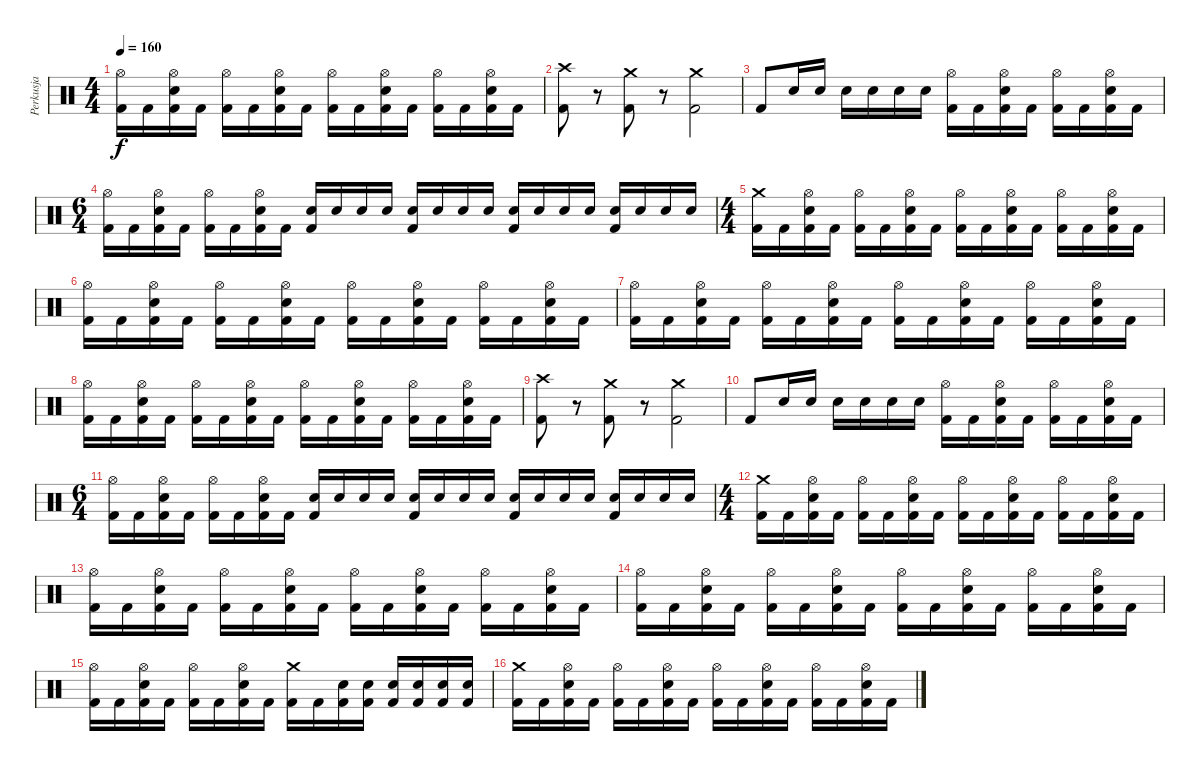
\track ("Perkusja" "Perkusja") {instrument percussion}
\staff {score}
\articulation defaults
\ts (4 4)
\tempo 160
\clef neutral
\ks c
("Hi-Hat (open)" "Kick (hit) 2").16{dy f} "Kick (hit) 2".16 ("Hi-Hat (open)" "Snare (hit) 2" "Kick (hit) 2").16 "Kick (hit) 2".16 ("Hi-Hat (open)" "Kick (hit) 2").16 "Kick (hit) 2".16 ("Hi-Hat (open)" "Snare (hit) 2" "Kick (hit) 2").16 "Kick (hit) 2".16 ("Hi-Hat (open)" "Kick (hit) 2").16 "Kick (hit) 2".16 ("Hi-Hat (open)" "Snare (hit) 2" "Kick (hit) 2").16 "Kick (hit) 2".16 ("Hi-Hat (open)" "Kick (hit) 2").16 "Kick (hit) 2".16 ("Hi-Hat (open)" "Snare (hit) 2" "Kick (hit) 2").16 "Kick (hit) 2".16 |
("Crash high (hit)" "Kick (hit) 2").8 r.8 ("Crash medium (hit)" "Kick (hit) 2").8 r.8 ("Crash medium (hit)" "Kick (hit) 2").2 |
"Kick (hit) 2".8 "Snare (hit) 2".16 "Snare (hit) 2".16 "Snare (hit) 2".16 "Snare (hit) 2".16 "Snare (hit) 2".16 "Snare (hit) 2".16 ("Hi-Hat (open)" "Kick (hit) 2").16 "Kick (hit) 2".16 ("Hi-Hat (open)" "Snare (hit) 2" "Kick (hit) 2").16 "Kick (hit) 2".16 ("Hi-Hat (open)" "Kick (hit) 2").16 "Kick (hit) 2".16 ("Hi-Hat (open)" "Snare (hit) 2" "Kick (hit) 2").16 "Kick (hit) 2".16 |
\ts (6 4)
("Hi-Hat (open)" "Kick (hit) 2").16 "Kick (hit) 2".16 ("Hi-Hat (open)" "Snare (hit) 2" "Kick (hit) 2").16 "Kick (hit) 2".16 ("Hi-Hat (open)" "Kick (hit) 2").16 "Kick (hit) 2".16 ("Hi-Hat (open)" "Snare (hit) 2" "Kick (hit) 2").16 "Kick (hit) 2".16 ("Snare (hit) 2" "Kick (hit) 2").16 "Snare (hit) 2".16 "Snare (hit) 2".16 "Snare (hit) 2".16 ("Snare (hit) 2" "Kick (hit) 2").16 "Snare (hit) 2".16 "Snare (hit) 2".16 "Snare (hit) 2".16 ("Snare (hit) 2" "Kick (hit) 2").16 "Snare (hit) 2".16 "Snare (hit) 2".16 "Snare (hit) 2".16 ("Snare (hit) 2" "Kick (hit) 2").16 "Snare (hit) 2".16 "Snare (hit) 2".16 "Snare (hit) 2".16 |
\ts (4 4)
("Crash medium (hit)" "Kick (hit) 2").16 "Kick (hit) 2".16 ("Hi-Hat (open)" "Snare (hit) 2" "Kick (hit) 2").16 "Kick (hit) 2".16 ("Hi-Hat (open)" "Kick (hit) 2").16 "Kick (hit) 2".16 ("Hi-Hat (open)" "Snare (hit) 2" "Kick (hit) 2").16 "Kick (hit) 2".16 ("Hi-Hat (open)" "Kick (hit) 2").16 "Kick (hit) 2".16 ("Hi-Hat (open)" "Snare (hit) 2" "Kick (hit) 2").16 "Kick (hit) 2".16 ("Hi-Hat (open)" "Kick (hit) 2").16 "Kick (hit) 2".16 ("Hi-Hat (open)" "Snare (hit) 2" "Kick (hit) 2").16 "Kick (hit) 2".16 |
("Hi-Hat (open)" "Kick (hit) 2").16 "Kick (hit) 2".16 ("Hi-Hat (open)" "Snare (hit) 2" "Kick (hit) 2").16 "Kick (hit) 2".16 ("Hi-Hat (open)" "Kick (hit) 2").16 "Kick (hit) 2".16 ("Hi-Hat (open)" "Snare (hit) 2" "Kick (hit) 2").16 "Kick (hit) 2".16 ("Hi-Hat (open)" "Kick (hit) 2").16 "Kick (hit) 2".16 ("Hi-Hat (open)" "Snare (hit) 2" "Kick (hit) 2").16 "Kick (hit) 2".16 ("Hi-Hat (open)" "Kick (hit) 2").16 "Kick (hit) 2".16 ("Hi-Hat (open)" "Snare (hit) 2" "Kick (hit) 2").16 "Kick (hit) 2".16 |
("Hi-Hat (open)" "Kick (hit) 2").16 "Kick (hit) 2".16 ("Hi-Hat (open)" "Snare (hit) 2" "Kick (hit) 2").16 "Kick (hit) 2".16 ("Hi-Hat (open)" "Kick (hit) 2").16 "Kick (hit) 2".16 ("Hi-Hat (open)" "Snare (hit) 2" "Kick (hit) 2").16 "Kick (hit) 2".16 ("Hi-Hat (open)" "Kick (hit) 2").16 "Kick (hit) 2".16 ("Hi-Hat (open)" "Snare (hit) 2" "Kick (hit) 2").16 "Kick (hit) 2".16 ("Hi-Hat (open)" "Kick (hit) 2").16 "Kick (hit) 2".16 ("Hi-Hat (open)" "Snare (hit) 2" "Kick (hit) 2").16 "Kick (hit) 2".16 |
("Hi-Hat (open)" "Kick (hit) 2").16 "Kick (hit) 2".16 ("Hi-Hat (open)" "Snare (hit) 2" "Kick (hit) 2").16 "Kick (hit) 2".16 ("Hi-Hat (open)" "Kick (hit) 2").16 "Kick (hit) 2".16 ("Hi-Hat (open)" "Snare (hit) 2" "Kick (hit) 2").16 "Kick (hit) 2".16 ("Hi-Hat (open)" "Kick (hit) 2").16 "Kick (hit) 2".16 ("Hi-Hat (open)" "Snare (hit) 2" "Kick (hit) 2").16 "Kick (hit) 2".16 ("Hi-Hat (open)" "Kick (hit) 2").16 "Kick (hit) 2".16 ("Hi-Hat (open)" "Snare (hit) 2" "Kick (hit) 2").16 "Kick (hit) 2".16 |
("Crash high (hit)" "Kick (hit) 2").8 r.8 ("Crash medium (hit)" "Kick (hit) 2").8 r.8 ("Crash medium (hit)" "Kick (hit) 2").2 |
"Kick (hit) 2".8 "Snare (hit) 2".16 "Snare (hit) 2".16 "Snare (hit) 2".16 "Snare (hit) 2".16 "Snare (hit) 2".16 "Snare (hit) 2".16 ("Hi-Hat (open)" "Kick (hit) 2").16 "Kick (hit) 2".16 ("Hi-Hat (open)" "Snare (hit) 2" "Kick (hit) 2").16 "Kick (hit) 2".16 ("Hi-Hat (open)" "Kick (hit) 2").16 "Kick (hit) 2".16 ("Hi-Hat (open)" "Snare (hit) 2" "Kick (hit) 2").16 "Kick (hit) 2".16 |
\ts (6 4)
("Hi-Hat (open)" "Kick (hit) 2").16 "Kick (hit) 2".16 ("Hi-Hat (open)" "Snare (hit) 2" "Kick (hit) 2").16 "Kick (hit) 2".16 ("Hi-Hat (open)" "Kick (hit) 2").16 "Kick (hit) 2".16 ("Hi-Hat (open)" "Snare (hit) 2" "Kick (hit) 2").16 "Kick (hit) 2".16 ("Snare (hit) 2" "Kick (hit) 2").16 "Snare (hit) 2".16 "Snare (hit) 2".16 "Snare (hit) 2".16 ("Snare (hit) 2" "Kick (hit) 2").16 "Snare (hit) 2".16 "Snare (hit) 2".16 "Snare (hit) 2".16 ("Snare (hit) 2" "Kick (hit) 2").16 "Snare (hit) 2".16 "Snare (hit) 2".16 "Snare (hit) 2".16 ("Snare (hit) 2" "Kick (hit) 2").16 "Snare (hit) 2".16 "Snare (hit) 2".16 "Snare (hit) 2".16 |
\ts (4 4)
("Crash medium (hit)" "Kick (hit) 2").16 "Kick (hit) 2".16 ("Hi-Hat (open)" "Snare (hit) 2" "Kick (hit) 2").16 "Kick (hit) 2".16 ("Hi-Hat (open)" "Kick (hit) 2").16 "Kick (hit) 2".16 ("Hi-Hat (open)" "Snare (hit) 2" "Kick (hit) 2").16 "Kick (hit) 2".16 ("Hi-Hat (open)" "Kick (hit) 2").16 "Kick (hit) 2".16 ("Hi-Hat (open)" "Snare (hit) 2" "Kick (hit) 2").16 "Kick (hit) 2".16 ("Hi-Hat (open)" "Kick (hit) 2").16 "Kick (hit) 2".16 ("Hi-Hat (open)" "Snare (hit) 2" "Kick (hit) 2").16 "Kick (hit) 2".16 |
("Hi-Hat (open)" "Kick (hit) 2").16 "Kick (hit) 2".16 ("Hi-Hat (open)" "Snare (hit) 2" "Kick (hit) 2").16 "Kick (hit) 2".16 ("Hi-Hat (open)" "Kick (hit) 2").16 "Kick (hit) 2".16 ("Hi-Hat (open)" "Snare (hit) 2" "Kick (hit) 2").16 "Kick (hit) 2".16 ("Hi-Hat (open)" "Kick (hit) 2").16 "Kick (hit) 2".16 ("Hi-Hat (open)" "Snare (hit) 2" "Kick (hit) 2").16 "Kick (hit) 2".16 ("Hi-Hat (open)" "Kick (hit) 2").16 "Kick (hit) 2".16 ("Hi-Hat (open)" "Snare (hit) 2" "Kick (hit) 2").16 "Kick (hit) 2".16 |
("Hi-Hat (open)" "Kick (hit) 2").16 "Kick (hit) 2".16 ("Hi-Hat (open)" "Snare (hit) 2" "Kick (hit) 2").16 "Kick (hit) 2".16 ("Hi-Hat (open)" "Kick (hit) 2").16 "Kick (hit) 2".16 ("Hi-Hat (open)" "Snare (hit) 2" "Kick (hit) 2").16 "Kick (hit) 2".16 ("Hi-Hat (open)" "Kick (hit) 2").16 "Kick (hit) 2".16 ("Hi-Hat (open)" "Snare (hit) 2" "Kick (hit) 2").16 "Kick (hit) 2".16 ("Hi-Hat (open)" "Kick (hit) 2").16 "Kick (hit) 2".16 ("Hi-Hat (open)" "Snare (hit) 2" "Kick (hit) 2").16 "Kick (hit) 2".16 |
("Hi-Hat (open)" "Kick (hit) 2").16 "Kick (hit) 2".16 ("Hi-Hat (open)" "Snare (hit) 2" "Kick (hit) 2").16 "Kick (hit) 2".16 ("Hi-Hat (open)" "Kick (hit) 2").16 "Kick (hit) 2".16 ("Hi-Hat (open)" "Snare (hit) 2" "Kick (hit) 2").16 "Kick (hit) 2".16 ("Crash medium (hit)" "Kick (hit) 2").16 "Kick (hit) 2".16 ("Snare (hit) 2" "Kick (hit) 2").16 ("Snare (hit) 2" "Kick (hit) 2").16 ("Snare (hit) 2" "Kick (hit) 2").16 ("Snare (hit) 2" "Kick (hit) 2").16 ("Snare (hit) 2" "Kick (hit) 2").16 ("Snare (hit) 2" "Kick (hit) 2").16 |
("Crash medium (hit)" "Kick (hit) 2").16 "Kick (hit) 2".16 ("Hi-Hat (open)" "Snare (hit) 2" "Kick (hit) 2").16 "Kick (hit) 2".16 ("Hi-Hat (open)" "Kick (hit) 2").16 "Kick (hit) 2".16 ("Hi-Hat (open)" "Snare (hit) 2" "Kick (hit) 2").16 "Kick (hit) 2".16 ("Hi-Hat (open)" "Kick (hit) 2").16 "Kick (hit) 2".16 ("Hi-Hat (open)" "Snare (hit) 2" "Kick (hit) 2").16 "Kick (hit) 2".16 ("Hi-Hat (open)" "Kick (hit) 2").16 "Kick (hit) 2".16 ("Hi-Hat (open)" "Snare (hit) 2" "Kick (hit) 2").16 "Kick (hit) 2".16
